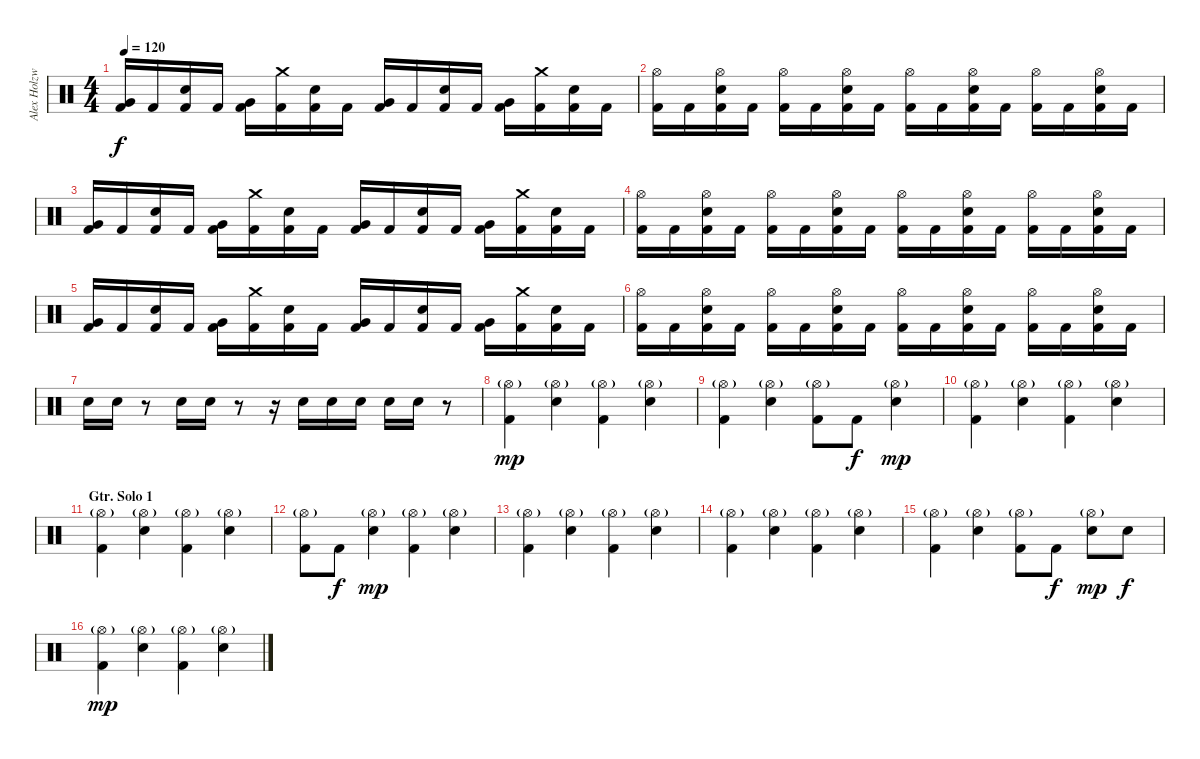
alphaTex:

\track ("Alex Holzwarth - Drums" "Alex Holzw") {instrument percussion}
\staff {score}
\articulation defaults
\ts (4 4)
\tempo 120
\clef neutral
\ks c
("Very Low Tom (hit)" "Kick (hit) 2").16{dy f} "Kick (hit) 2".16 ("Electric Snare (hit)" "Kick (hit) 2").16 "Kick (hit) 2".16 ("Very Low Tom (hit)" "Kick (hit) 2").16 ("Crash medium (hit)" "Kick (hit) 2").16 ("Electric Snare (hit)" "Kick (hit) 2").16 "Kick (hit) 2".16 ("Very Low Tom (hit)" "Kick (hit) 2").16 "Kick (hit) 2".16 ("Electric Snare (hit)" "Kick (hit) 2").16 "Kick (hit) 2".16 ("Very Low Tom (hit)" "Kick (hit) 2").16 ("Crash medium (hit)" "Kick (hit) 2").16 ("Electric Snare (hit)" "Kick (hit) 2").16 "Kick (hit) 2".16 |
("Hi-Hat (open)" "Kick (hit) 2").16 "Kick (hit) 2".16 ("Hi-Hat (open)" "Electric Snare (hit)" "Kick (hit) 2").16 "Kick (hit) 2".16 ("Hi-Hat (open)" "Kick (hit) 2").16 "Kick (hit) 2".16 ("Hi-Hat (open)" "Electric Snare (hit)" "Kick (hit) 2").16 "Kick (hit) 2".16 ("Hi-Hat (open)" "Kick (hit) 2").16 "Kick (hit) 2".16 ("Hi-Hat (open)" "Electric Snare (hit)" "Kick (hit) 2").16 "Kick (hit) 2".16 ("Hi-Hat (open)" "Kick (hit) 2").16 "Kick (hit) 2".16 ("Hi-Hat (open)" "Electric Snare (hit)" "Kick (hit) 2").16 "Kick (hit) 2".16 |
("Very Low Tom (hit)" "Kick (hit) 2").16 "Kick (hit) 2".16 ("Electric Snare (hit)" "Kick (hit) 2").16 "Kick (hit) 2".16 ("Very Low Tom (hit)" "Kick (hit) 2").16 ("Crash medium (hit)" "Kick (hit) 2").16 ("Electric Snare (hit)" "Kick (hit) 2").16 "Kick (hit) 2".16 ("Very Low Tom (hit)" "Kick (hit) 2").16 "Kick (hit) 2".16 ("Electric Snare (hit)" "Kick (hit) 2").16 "Kick (hit) 2".16 ("Very Low Tom (hit)" "Kick (hit) 2").16 ("Crash medium (hit)" "Kick (hit) 2").16 ("Electric Snare (hit)" "Kick (hit) 2").16 "Kick (hit) 2".16 |
("Hi-Hat (open)" "Kick (hit) 2").16 "Kick (hit) 2".16 ("Hi-Hat (open)" "Electric Snare (hit)" "Kick (hit) 2").16 "Kick (hit) 2".16 ("Hi-Hat (open)" "Kick (hit) 2").16 "Kick (hit) 2".16 ("Hi-Hat (open)" "Electric Snare (hit)" "Kick (hit) 2").16 "Kick (hit) 2".16 ("Hi-Hat (open)" "Kick (hit) 2").16 "Kick (hit) 2".16 ("Hi-Hat (open)" "Electric Snare (hit)" "Kick (hit) 2").16 "Kick (hit) 2".16 ("Hi-Hat (open)" "Kick (hit) 2").16 "Kick (hit) 2".16 ("Hi-Hat (open)" "Electric Snare (hit)" "Kick (hit) 2").16 "Kick (hit) 2".16 |
("Very Low Tom (hit)" "Kick (hit) 2").16 "Kick (hit) 2".16 ("Electric Snare (hit)" "Kick (hit) 2").16 "Kick (hit) 2".16 ("Very Low Tom (hit)" "Kick (hit) 2").16 ("Crash medium (hit)" "Kick (hit) 2").16 ("Electric Snare (hit)" "Kick (hit) 2").16 "Kick (hit) 2".16 ("Very Low Tom (hit)" "Kick (hit) 2").16 "Kick (hit) 2".16 ("Electric Snare (hit)" "Kick (hit) 2").16 "Kick (hit) 2".16 ("Very Low Tom (hit)" "Kick (hit) 2").16 ("Crash medium (hit)" "Kick (hit) 2").16 ("Electric Snare (hit)" "Kick (hit) 2").16 "Kick (hit) 2".16 |
("Hi-Hat (open)" "Kick (hit) 2").16 "Kick (hit) 2".16 ("Hi-Hat (open)" "Electric Snare (hit)" "Kick (hit) 2").16 "Kick (hit) 2".16 ("Hi-Hat (open)" "Kick (hit) 2").16 "Kick (hit) 2".16 ("Hi-Hat (open)" "Electric Snare (hit)" "Kick (hit) 2").16 "Kick (hit) 2".16 ("Hi-Hat (open)" "Kick (hit) 2").16 "Kick (hit) 2".16 ("Hi-Hat (open)" "Electric Snare (hit)" "Kick (hit) 2").16 "Kick (hit) 2".16 ("Hi-Hat (open)" "Kick (hit) 2").16 "Kick (hit) 2".16 ("Hi-Hat (open)" "Electric Snare (hit)" "Kick (hit) 2").16 "Kick (hit) 2".16 |
"Electric Snare (hit)".16 "Electric Snare (hit)".16 r.8 "Electric Snare (hit)".16 "Electric Snare (hit)".16 r.8 r.16 "Electric Snare (hit)".16 "Electric Snare (hit)".16 "Electric Snare (hit)".16 "Electric Snare (hit)".16 "Electric Snare (hit)".16 r.8 |
("Hi-Hat (open)"{g} "Kick (hit) 2").4{dy mp} ("Hi-Hat (open)"{g} "Electric Snare (hit)").4 ("Hi-Hat (open)"{g} "Kick (hit) 2").4 ("Hi-Hat (open)"{g} "Electric Snare (hit)").4 |
("Hi-Hat (open)"{g} "Kick (hit) 2").4 ("Hi-Hat (open)"{g} "Electric Snare (hit)").4 ("Hi-Hat (open)"{g} "Kick (hit) 2").8 "Kick (hit) 2".8{dy f} ("Hi-Hat (open)"{g} "Electric Snare (hit)").4{dy mp} |
("Hi-Hat (open)"{g} "Kick (hit) 2").4 ("Hi-Hat (open)"{g} "Electric Snare (hit)").4 ("Hi-Hat (open)"{g} "Kick (hit) 2").4 ("Hi-Hat (open)"{g} "Electric Snare (hit)").4 |
\section ("" "Gtr. Solo 1")
("Hi-Hat (open)"{g} "Kick (hit) 2").4 ("Hi-Hat (open)"{g} "Electric Snare (hit)").4 ("Hi-Hat (open)"{g} "Kick (hit) 2").4 ("Hi-Hat (open)"{g} "Electric Snare (hit)").4 |
("Hi-Hat (open)"{g} "Kick (hit) 2").8 "Kick (hit) 2".8{dy f} ("Hi-Hat (open)"{g} "Electric Snare (hit)").4{dy mp} ("Hi-Hat (open)"{g} "Kick (hit) 2").4 ("Hi-Hat (open)"{g} "Electric Snare (hit)").4 |
("Hi-Hat (open)"{g} "Kick (hit) 2").4 ("Hi-Hat (open)"{g} "Electric Snare (hit)").4 ("Hi-Hat (open)"{g} "Kick (hit) 2").4 ("Hi-Hat (open)"{g} "Electric Snare (hit)").4 |
("Hi-Hat (open)"{g} "Kick (hit) 2").4 ("Hi-Hat (open)"{g} "Electric Snare (hit)").4 ("Hi-Hat (open)"{g} "Kick (hit) 2").4 ("Hi-Hat (open)"{g} "Electric Snare (hit)").4 |
("Hi-Hat (open)"{g} "Kick (hit) 2").4 ("Hi-Hat (open)"{g} "Electric Snare (hit)").4 ("Hi-Hat (open)"{g} "Kick (hit) 2").8 "Kick (hit) 2".8{dy f} ("Hi-Hat (open)"{g} "Electric Snare (hit)").8{dy mp} "Electric Snare (hit)".8{dy f} |
("Hi-Hat (open)"{g} "Kick (hit) 2").4{dy mp} ("Hi-Hat (open)"{g} "Electric Snare (hit)").4 ("Hi-Hat (open)"{g} "Kick (hit) 2").4 ("Hi-Hat (open)"{g} "Electric Snare (hit)").4
